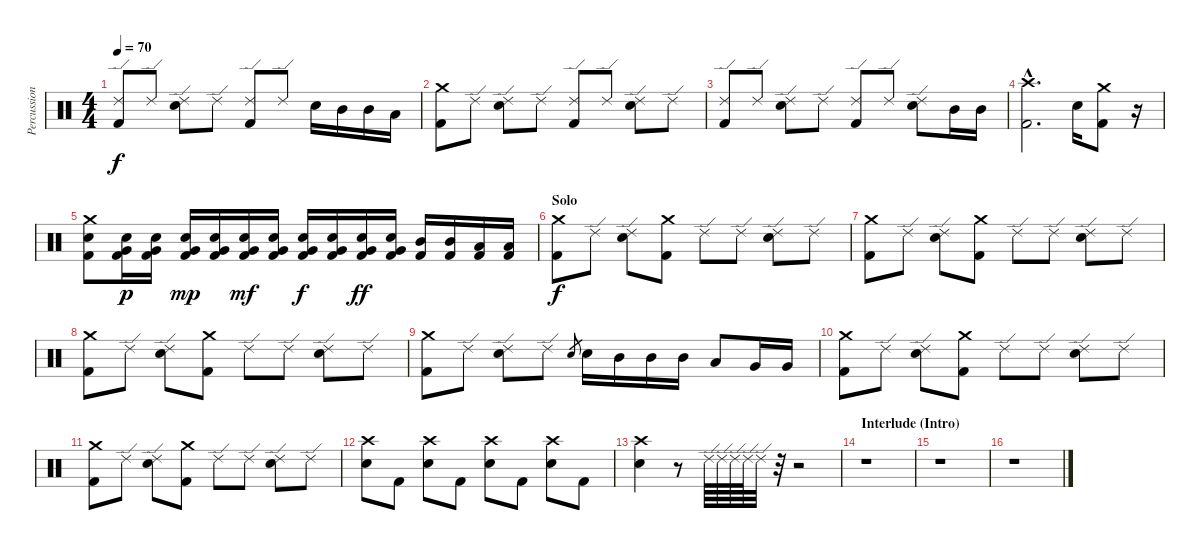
\track ("Percussion" "Percussion") {instrument percussion}
\staff {score}
\articulation defaults
\ts (4 4)
\tempo 70
\clef neutral
\ks c
("Ride (edge) 2" "Kick (hit) 2").8{dy f} "Ride (edge) 2".8 ("Ride (edge) 2" "Snare (hit) 2").8 "Ride (edge) 2".8 ("Ride (edge) 2" "Kick (hit) 2").8 "Ride (edge) 2".8 "Snare (hit) 2".16 "Mid Tom (hit)".16 "Mid Tom (hit)".16 "Low Tom (hit)".16 |
("Crash medium (hit)" "Kick (hit) 2").8 "Ride (edge) 2".8 ("Ride (edge) 2" "Snare (hit) 2").8 "Ride (edge) 2".8 ("Ride (edge) 2" "Kick (hit) 2").8 "Ride (edge) 2".8 ("Ride (edge) 2" "Snare (hit) 2").8 "Ride (edge) 2".8 |
("Ride (edge) 2" "Kick (hit) 2").8 "Ride (edge) 2".8 ("Ride (edge) 2" "Snare (hit) 2").8 "Ride (edge) 2".8 ("Ride (edge) 2" "Kick (hit) 2").8 "Ride (edge) 2".8 ("Ride (edge) 2" "Snare (hit) 2").8 "Mid Tom (hit)".16 "Mid Tom (hit)".16 |
("Crash high (hit)"{hac} "Kick (hit) 2"{hac}).2{d} "Snare (hit) 2".16 ("Crash medium (hit)" "Kick (hit) 2").8 r.16 |
("Crash medium (hit)" "Snare (hit) 2" "Kick (hit) 2").8 ("Very Low Tom (hit)" "Snare (hit) 2" "Kick (hit) 2").16{dy p} ("Very Low Tom (hit)" "Snare (hit) 2" "Kick (hit) 2").16 ("Very Low Tom (hit)" "Snare (hit) 2" "Kick (hit) 2").16{dy mp} ("Very Low Tom (hit)" "Snare (hit) 2" "Kick (hit) 2").16 ("Very Low Tom (hit)" "Snare (hit) 2" "Kick (hit) 2").16{dy mf} ("Very Low Tom (hit)" "Snare (hit) 2" "Kick (hit) 2").16 ("Very Low Tom (hit)" "Snare (hit) 2" "Kick (hit) 2").16{dy f} ("Very Low Tom (hit)" "Snare (hit) 2" "Kick (hit) 2").16 ("Very Low Tom (hit)" "Snare (hit) 2" "Kick (hit) 2").16{dy ff} ("Very Low Tom (hit)" "Snare (hit) 2" "Kick (hit) 2").16 ("Mid Tom (hit)" "Kick (hit) 2").16 ("Mid Tom (hit)" "Kick (hit) 2").16 ("Low Tom (hit)" "Kick (hit) 2").16 ("Low Tom (hit)" "Kick (hit) 2").16 |
\section ("" "Solo")
("Crash medium (hit)" "Kick (hit) 2").8{dy f} "Ride (edge) 2".8 ("Ride (edge) 2" "Snare (hit) 2").8 ("Crash medium (hit)" "Kick (hit) 2").8 "Ride (edge) 2".8 "Ride (edge) 2".8 ("Ride (edge) 2" "Snare (hit) 2").8 "Ride (edge) 2".8 |
("Crash medium (hit)" "Kick (hit) 2").8 "Ride (edge) 2".8 ("Ride (edge) 2" "Snare (hit) 2").8 ("Crash medium (hit)" "Kick (hit) 2").8 "Ride (edge) 2".8 "Ride (edge) 2".8 ("Ride (edge) 2" "Snare (hit) 2").8 "Ride (edge) 2".8 |
("Crash medium (hit)" "Kick (hit) 2").8 "Ride (edge) 2".8 ("Ride (edge) 2" "Snare (hit) 2").8 ("Crash medium (hit)" "Kick (hit) 2").8 "Ride (edge) 2".8 "Ride (edge) 2".8 ("Ride (edge) 2" "Snare (hit) 2").8 "Ride (edge) 2".8 |
("Crash medium (hit)" "Kick (hit) 2").8 "Ride (edge) 2".8 ("Ride (edge) 2" "Snare (hit) 2").8 "Ride (edge) 2".8 "Snare (hit) 2".8{gr} "Snare (hit) 2".16 "Mid Tom (hit)".16 "Mid Tom (hit)".16 "Mid Tom (hit)".16 "Low Tom (hit)".8 "Very Low Tom (hit)".16 "Very Low Tom (hit)".16 |
("Crash medium (hit)" "Kick (hit) 2").8 "Ride (edge) 2".8 ("Ride (edge) 2" "Snare (hit) 2").8 ("Crash medium (hit)" "Kick (hit) 2").8 "Ride (edge) 2".8 "Ride (edge) 2".8 ("Ride (edge) 2" "Snare (hit) 2").8 "Ride (edge) 2".8 |
("Crash medium (hit)" "Kick (hit) 2").8 "Ride (edge) 2".8 ("Ride (edge) 2" "Snare (hit) 2").8 ("Crash medium (hit)" "Kick (hit) 2").8 "Ride (edge) 2".8 "Ride (edge) 2".8 ("Ride (edge) 2" "Snare (hit) 2").8 "Ride (edge) 2".8 |
("Crash high (hit)" "Snare (hit) 2").8 "Kick (hit) 2".8 ("Crash high (hit)" "Snare (hit) 2").8 "Kick (hit) 2".8 ("Crash high (hit)" "Snare (hit) 2").8 "Kick (hit) 2".8 ("Crash high (hit)" "Snare (hit) 2").8 "Kick (hit) 2".8 |
("Crash high (hit)" "Snare (hit) 2").4 r.8 "Ride (edge) 2".64 "Ride (edge) 2".64 "Ride (edge) 2".64 "Ride (edge) 2".64 "Ride (edge) 2".32 r.32 r.2 |
\section ("" "Interlude (Intro)")
r.1 |
r.1 |
r.1
